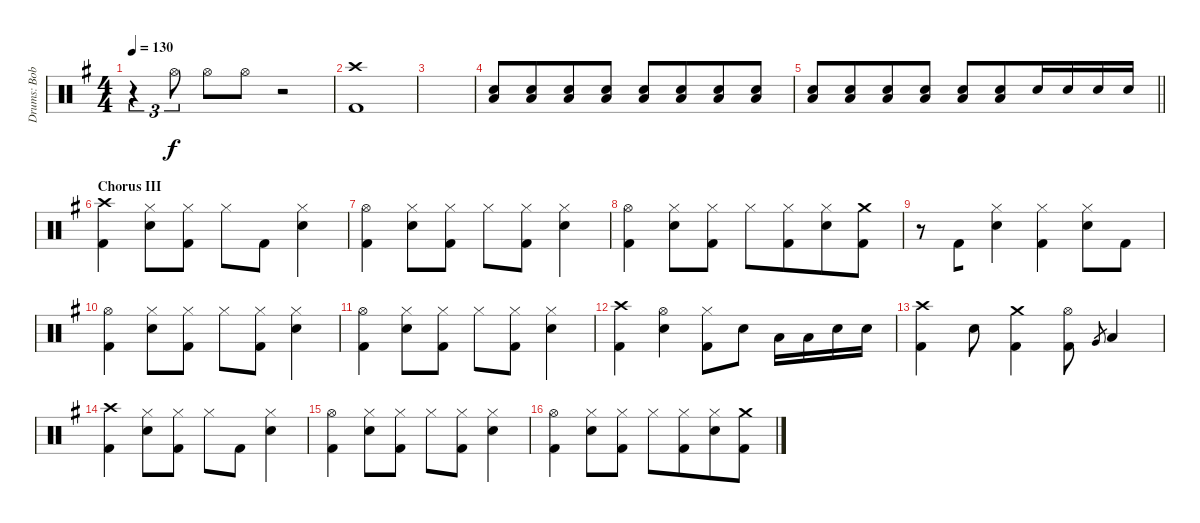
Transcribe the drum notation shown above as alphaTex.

\track ("Drums: Bobby" "Drums: Bob") {instrument percussion}
\staff {score}
\articulation defaults
\ts (4 4)
\tempo 130
\clef neutral
\ks g
r.4{tu (3 2) dy f} "Hi-Hat (open)".8{tu (3 2)} "Hi-Hat (open)".8 "Hi-Hat (open)".8 r.2 |
("Crash high (hit)" "Kick (hit) 2").1 |
|
("Snare (hit) 2" "Low Tom (hit)").8{beam Up} ("Snare (hit) 2" "Low Tom (hit)").8{beam Up beam merge} ("Snare (hit) 2" "Low Tom (hit)").8{beam Up} ("Snare (hit) 2" "Low Tom (hit)").8{beam Up} ("Snare (hit) 2" "Low Tom (hit)").8{beam Up} ("Snare (hit) 2" "Low Tom (hit)").8{beam Up beam merge} ("Snare (hit) 2" "Low Tom (hit)").8{beam Up} ("Snare (hit) 2" "Low Tom (hit)").8{beam Up} |
\barLineRight lightlight
("Snare (hit) 2" "Low Tom (hit)").8{beam Up} ("Snare (hit) 2" "Low Tom (hit)").8{beam Up beam merge} ("Snare (hit) 2" "Low Tom (hit)").8{beam Up} ("Snare (hit) 2" "Low Tom (hit)").8{beam Up} ("Snare (hit) 2" "Low Tom (hit)").8{beam Up} ("Snare (hit) 2" "Low Tom (hit)").8{beam Up beam merge} "Snare (hit) 2".16{beam Up} "Snare (hit) 2".16{beam Up beam merge} "Snare (hit) 2".16{beam Up} "Snare (hit) 2".16{beam Up} |
\section ("" "Chorus III")
("Crash high (hit)" "Kick (hit) 2").4{beam merge} ("Hi-Hat (closed)" "Snare (hit) 2").8 ("Hi-Hat (closed)" "Kick (hit) 2").8 "Hi-Hat (closed)".8 "Kick (hit) 2".8{beam merge} ("Hi-Hat (closed)" "Snare (hit) 2").4 |
("Hi-Hat (open)" "Kick (hit) 2").4{beam merge} ("Hi-Hat (closed)" "Snare (hit) 2").8 ("Hi-Hat (closed)" "Kick (hit) 2").8 "Hi-Hat (closed)".8 ("Hi-Hat (closed)" "Kick (hit) 2").8{beam merge} ("Hi-Hat (closed)" "Snare (hit) 2").4 |
("Hi-Hat (open)" "Kick (hit) 2").4{beam merge} ("Hi-Hat (closed)" "Snare (hit) 2").8 ("Hi-Hat (closed)" "Kick (hit) 2").8 "Hi-Hat (closed)".8 ("Hi-Hat (closed)" "Kick (hit) 2").8{beam merge} ("Hi-Hat (closed)" "Snare (hit) 2").8 ("Crash medium (hit)" "Kick (hit) 2").8 |
r.8 "Kick (hit) 2".8{beam merge} ("Hi-Hat (closed)" "Snare (hit) 2").4 ("Hi-Hat (closed)" "Kick (hit) 2").4{beam merge} ("Hi-Hat (closed)" "Snare (hit) 2").8 "Kick (hit) 2".8 |
("Hi-Hat (open)" "Kick (hit) 2").4{beam merge} ("Hi-Hat (closed)" "Snare (hit) 2").8 ("Hi-Hat (closed)" "Kick (hit) 2").8 "Hi-Hat (closed)".8 ("Hi-Hat (closed)" "Kick (hit) 2").8{beam merge} ("Hi-Hat (closed)" "Snare (hit) 2").4 |
("Hi-Hat (open)" "Kick (hit) 2").4{beam merge} ("Hi-Hat (closed)" "Snare (hit) 2").8 ("Hi-Hat (closed)" "Kick (hit) 2").8 "Hi-Hat (closed)".8 ("Hi-Hat (closed)" "Kick (hit) 2").8{beam merge} ("Hi-Hat (closed)" "Snare (hit) 2").4 |
("Crash high (hit)" "Kick (hit) 2").4 ("Hi-Hat (open)" "Snare (hit) 2").4 ("Hi-Hat (closed)" "Kick (hit) 2").8 "Snare (hit) 2".8 "Low Tom (hit)".16 "Low Tom (hit)".16 "Snare (hit) 2".16 "Snare (hit) 2".16 |
("Crash high (hit)" "Kick (hit) 2").4 "Snare (hit) 2".8 ("Crash medium (hit)" "Kick (hit) 2").4 ("Hi-Hat (open)" "Kick (hit) 2").8 "Very Low Tom (hit)".8{gr} "Low Tom (hit)".4 |
("Crash high (hit)" "Kick (hit) 2").4{beam merge} ("Hi-Hat (closed)" "Snare (hit) 2").8 ("Hi-Hat (closed)" "Kick (hit) 2").8 "Hi-Hat (closed)".8 "Kick (hit) 2".8{beam merge} ("Hi-Hat (closed)" "Snare (hit) 2").4 |
("Hi-Hat (open)" "Kick (hit) 2").4{beam merge} ("Hi-Hat (closed)" "Snare (hit) 2").8 ("Hi-Hat (closed)" "Kick (hit) 2").8 "Hi-Hat (closed)".8 ("Hi-Hat (closed)" "Kick (hit) 2").8{beam merge} ("Hi-Hat (closed)" "Snare (hit) 2").4 |
("Hi-Hat (open)" "Kick (hit) 2").4{beam merge} ("Hi-Hat (closed)" "Snare (hit) 2").8 ("Hi-Hat (closed)" "Kick (hit) 2").8 "Hi-Hat (closed)".8 ("Hi-Hat (closed)" "Kick (hit) 2").8{beam merge} ("Hi-Hat (closed)" "Snare (hit) 2").8 ("Crash medium (hit)" "Kick (hit) 2").8
